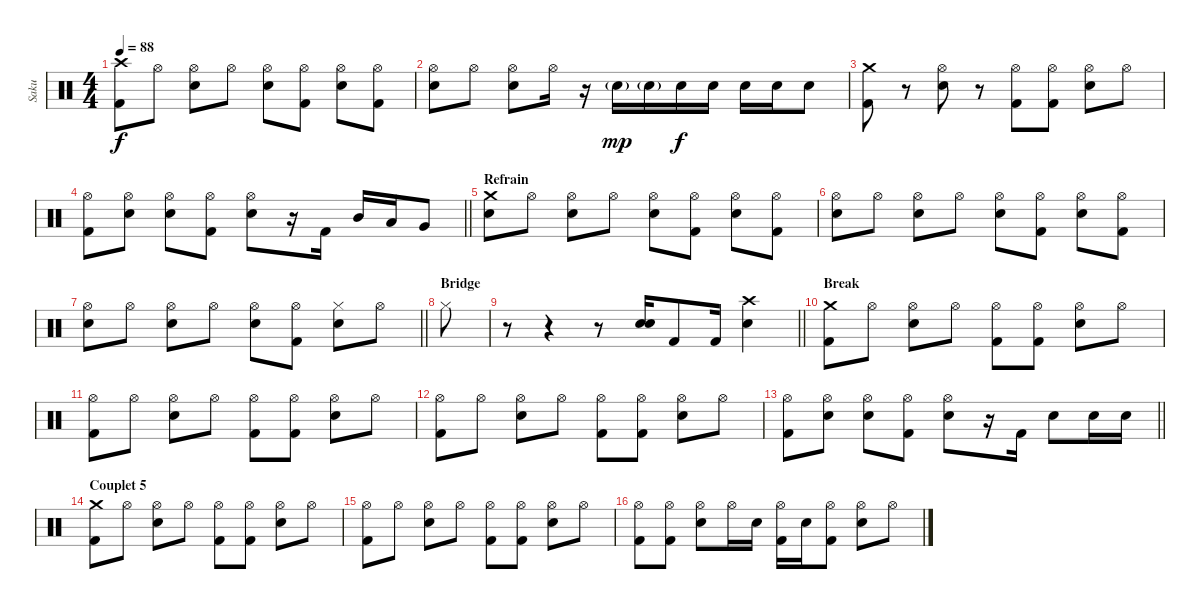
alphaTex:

\track ("Saku" "Saku") {instrument percussion}
\staff {score}
\articulation defaults
\ts (4 4)
\tempo 88
\clef neutral
\ks c
("Crash high (hit)" "Kick (hit) 2").8{dy f} "Hi-Hat (open)".8 ("Hi-Hat (open)" "Electric Snare (hit)").8 "Hi-Hat (open)".8 ("Hi-Hat (open)" "Electric Snare (hit)").8 ("Hi-Hat (open)" "Kick (hit) 2").8 ("Hi-Hat (open)" "Electric Snare (hit)").8 ("Hi-Hat (open)" "Kick (hit) 2").8 |
("Hi-Hat (open)" "Electric Snare (hit)").8 "Hi-Hat (open)".8 ("Hi-Hat (open)" "Electric Snare (hit)").8 "Hi-Hat (open)".16 r.16 "Electric Snare (hit)"{g}.16{dy mp} "Electric Snare (hit)"{g}.16 "Electric Snare (hit)".16{dy f} "Electric Snare (hit)".16 "Electric Snare (hit)".16 "Electric Snare (hit)".16 "Electric Snare (hit)".8 |
("Crash medium (hit)" "Kick (hit) 2").8 r.8 ("Hi-Hat (open)" "Electric Snare (hit)").8 r.8 ("Hi-Hat (open)" "Kick (hit) 2").8 ("Hi-Hat (open)" "Kick (hit) 2").8 ("Hi-Hat (open)" "Electric Snare (hit)").8 "Hi-Hat (open)".8 |
\barLineRight lightlight
("Hi-Hat (open)" "Kick (hit) 2").8 ("Hi-Hat (open)" "Electric Snare (hit)").8 ("Hi-Hat (open)" "Electric Snare (hit)").8 ("Hi-Hat (open)" "Kick (hit) 2").8 ("Hi-Hat (open)" "Electric Snare (hit)").8 r.16 "Kick (hit) 2".16 "Mid Tom (hit)".16 "Low Tom (hit)".16 "Very Low Tom (hit)".8 |
\section ("" "Refrain")
("Crash medium (hit)" "Electric Snare (hit)").8 "Hi-Hat (open)".8 ("Hi-Hat (open)" "Electric Snare (hit)").8 "Hi-Hat (open)".8 ("Hi-Hat (open)" "Electric Snare (hit)").8 ("Hi-Hat (open)" "Kick (hit) 2").8 ("Hi-Hat (open)" "Electric Snare (hit)").8 ("Hi-Hat (open)" "Kick (hit) 2").8 |
("Hi-Hat (open)" "Electric Snare (hit)").8 "Hi-Hat (open)".8 ("Hi-Hat (open)" "Electric Snare (hit)").8 "Hi-Hat (open)".8 ("Hi-Hat (open)" "Electric Snare (hit)").8 ("Hi-Hat (open)" "Kick (hit) 2").8 ("Hi-Hat (open)" "Electric Snare (hit)").8 ("Hi-Hat (open)" "Kick (hit) 2").8 |
\barLineRight lightlight
("Hi-Hat (open)" "Electric Snare (hit)").8 "Hi-Hat (open)".8 ("Hi-Hat (open)" "Electric Snare (hit)").8 "Hi-Hat (open)".8 ("Hi-Hat (open)" "Electric Snare (hit)").8 ("Hi-Hat (open)" "Kick (hit) 2").8 ("Hi-Hat (closed)" "Electric Snare (hit)").8 "Hi-Hat (open)".8 |
\section ("" "Bridge")
"Hi-Hat (closed)".8 |
\barLineRight lightlight
r.8 r.4 r.8 ("Electric Snare (hit)" "Electric Snare (hit)").16{bu 60} "Kick (hit) 2".8 "Kick (hit) 2".16 ("Crash high (hit)" "Electric Snare (hit)").4 |
\section ("" "Break")
("Crash medium (hit)" "Kick (hit) 2").8 "Hi-Hat (open)".8 ("Hi-Hat (open)" "Electric Snare (hit)").8 "Hi-Hat (open)".8 ("Hi-Hat (open)" "Kick (hit) 2").8 ("Hi-Hat (open)" "Kick (hit) 2").8 ("Hi-Hat (open)" "Electric Snare (hit)").8 "Hi-Hat (open)".8 |
("Hi-Hat (open)" "Kick (hit) 2").8 "Hi-Hat (open)".8 ("Hi-Hat (open)" "Electric Snare (hit)").8 "Hi-Hat (open)".8 ("Hi-Hat (open)" "Kick (hit) 2").8 ("Hi-Hat (open)" "Kick (hit) 2").8 ("Hi-Hat (open)" "Electric Snare (hit)").8 "Hi-Hat (open)".8 |
("Hi-Hat (open)" "Kick (hit) 2").8 "Hi-Hat (open)".8 ("Hi-Hat (open)" "Electric Snare (hit)").8 "Hi-Hat (open)".8 ("Hi-Hat (open)" "Kick (hit) 2").8 ("Hi-Hat (open)" "Kick (hit) 2").8 ("Hi-Hat (open)" "Electric Snare (hit)").8 "Hi-Hat (open)".8 |
\barLineRight lightlight
("Hi-Hat (open)" "Kick (hit) 2").8 ("Hi-Hat (open)" "Electric Snare (hit)").8 ("Hi-Hat (open)" "Electric Snare (hit)").8 ("Hi-Hat (open)" "Kick (hit) 2").8 ("Hi-Hat (open)" "Electric Snare (hit)").8 r.16 "Kick (hit) 2".16 "Electric Snare (hit)".8 "Electric Snare (hit)".16 "Electric Snare (hit)".16 |
\section ("" "Couplet 5")
("Crash medium (hit)" "Kick (hit) 2").8 "Hi-Hat (open)".8 ("Hi-Hat (open)" "Electric Snare (hit)").8 "Hi-Hat (open)".8 ("Hi-Hat (open)" "Kick (hit) 2").8 ("Hi-Hat (open)" "Kick (hit) 2").8 ("Hi-Hat (open)" "Electric Snare (hit)").8 "Hi-Hat (open)".8 |
("Hi-Hat (open)" "Kick (hit) 2").8 "Hi-Hat (open)".8 ("Hi-Hat (open)" "Electric Snare (hit)").8 "Hi-Hat (open)".8 ("Hi-Hat (open)" "Kick (hit) 2").8 ("Hi-Hat (open)" "Kick (hit) 2").8 ("Hi-Hat (open)" "Electric Snare (hit)").8 "Hi-Hat (open)".8 |
("Hi-Hat (open)" "Kick (hit) 2").8 ("Hi-Hat (open)" "Kick (hit) 2").8 ("Hi-Hat (open)" "Electric Snare (hit)").8 "Hi-Hat (open)".16 "Electric Snare (hit)".16 ("Hi-Hat (open)" "Kick (hit) 2").16 "Electric Snare (hit)".16 ("Hi-Hat (open)" "Kick (hit) 2").8 ("Hi-Hat (open)" "Electric Snare (hit)").8 "Hi-Hat (open)".8
